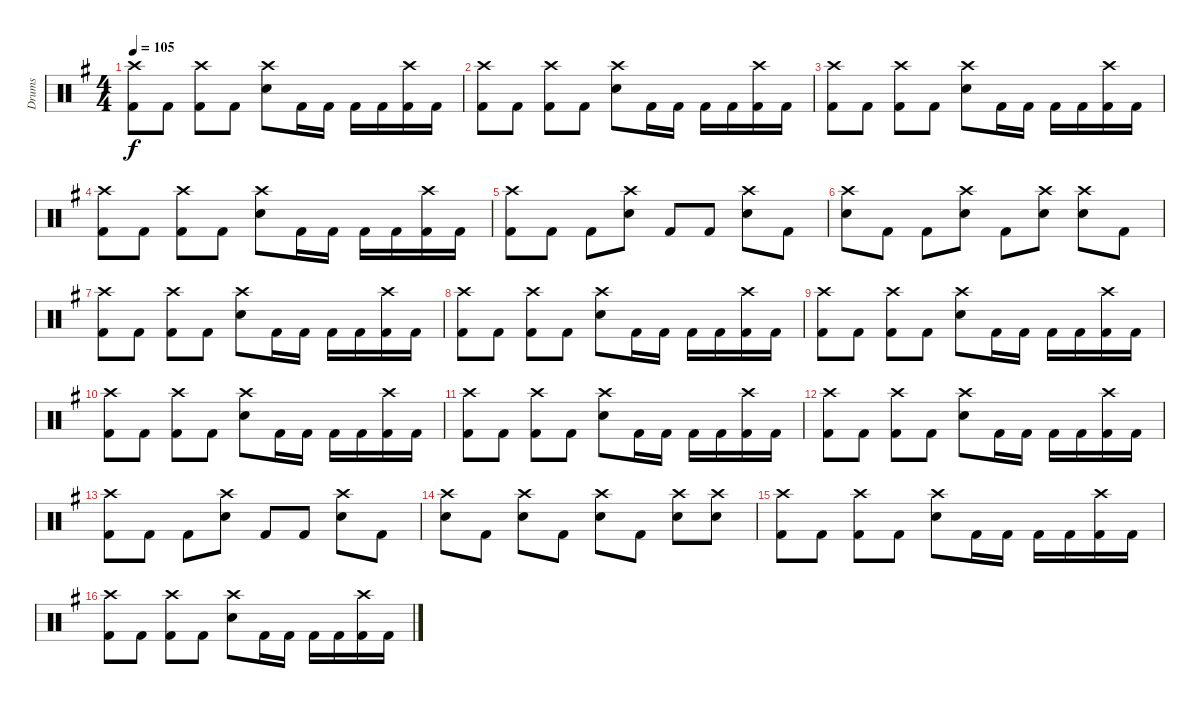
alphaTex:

\track ("Drums" "Drums") {instrument percussion}
\staff {score}
\articulation defaults
\ts (4 4)
\tempo 105
\clef neutral
\ks eminor
("Crash high (hit)" "Kick (hit) 2").8{dy f} "Kick (hit) 2".8 ("Crash high (hit)" "Kick (hit) 2").8 "Kick (hit) 2".8 ("Crash high (hit)" "Electric Snare (hit)").8 "Kick (hit) 2".16 "Kick (hit) 2".16 "Kick (hit) 2".16 "Kick (hit) 2".16 ("Crash high (hit)" "Kick (hit) 2").16 "Kick (hit) 2".16 |
("Crash high (hit)" "Kick (hit) 2").8 "Kick (hit) 2".8 ("Crash high (hit)" "Kick (hit) 2").8 "Kick (hit) 2".8 ("Crash high (hit)" "Electric Snare (hit)").8 "Kick (hit) 2".16 "Kick (hit) 2".16 "Kick (hit) 2".16 "Kick (hit) 2".16 ("Crash high (hit)" "Kick (hit) 2").16 "Kick (hit) 2".16 |
("Crash high (hit)" "Kick (hit) 2").8 "Kick (hit) 2".8 ("Crash high (hit)" "Kick (hit) 2").8 "Kick (hit) 2".8 ("Crash high (hit)" "Electric Snare (hit)").8 "Kick (hit) 2".16 "Kick (hit) 2".16 "Kick (hit) 2".16 "Kick (hit) 2".16 ("Crash high (hit)" "Kick (hit) 2").16 "Kick (hit) 2".16 |
("Crash high (hit)" "Kick (hit) 2").8 "Kick (hit) 2".8 ("Crash high (hit)" "Kick (hit) 2").8 "Kick (hit) 2".8 ("Crash high (hit)" "Electric Snare (hit)").8 "Kick (hit) 2".16 "Kick (hit) 2".16 "Kick (hit) 2".16 "Kick (hit) 2".16 ("Crash high (hit)" "Kick (hit) 2").16 "Kick (hit) 2".16 |
("Crash high (hit)" "Kick (hit) 2").8 "Kick (hit) 2".8 "Kick (hit) 2".8 ("Crash high (hit)" "Electric Snare (hit)").8 "Kick (hit) 2".8 "Kick (hit) 2".8 ("Crash high (hit)" "Electric Snare (hit)").8 "Kick (hit) 2".8 |
("Crash high (hit)" "Electric Snare (hit)").8 "Kick (hit) 2".8 "Kick (hit) 2".8 ("Crash high (hit)" "Electric Snare (hit)").8 "Kick (hit) 2".8 ("Crash high (hit)" "Electric Snare (hit)").8 ("Crash high (hit)" "Electric Snare (hit)").8 "Kick (hit) 2".8 |
("Crash high (hit)" "Kick (hit) 2").8{volume 9} "Kick (hit) 2".8 ("Crash high (hit)" "Kick (hit) 2").8 "Kick (hit) 2".8 ("Crash high (hit)" "Electric Snare (hit)").8 "Kick (hit) 2".16 "Kick (hit) 2".16 "Kick (hit) 2".16 "Kick (hit) 2".16 ("Crash high (hit)" "Kick (hit) 2").16 "Kick (hit) 2".16 |
("Crash high (hit)" "Kick (hit) 2").8 "Kick (hit) 2".8 ("Crash high (hit)" "Kick (hit) 2").8 "Kick (hit) 2".8 ("Crash high (hit)" "Electric Snare (hit)").8 "Kick (hit) 2".16 "Kick (hit) 2".16 "Kick (hit) 2".16 "Kick (hit) 2".16 ("Crash high (hit)" "Kick (hit) 2").16 "Kick (hit) 2".16 |
("Crash high (hit)" "Kick (hit) 2").8 "Kick (hit) 2".8 ("Crash high (hit)" "Kick (hit) 2").8 "Kick (hit) 2".8 ("Crash high (hit)" "Electric Snare (hit)").8 "Kick (hit) 2".16 "Kick (hit) 2".16 "Kick (hit) 2".16 "Kick (hit) 2".16 ("Crash high (hit)" "Kick (hit) 2").16 "Kick (hit) 2".16 |
("Crash high (hit)" "Kick (hit) 2").8 "Kick (hit) 2".8 ("Crash high (hit)" "Kick (hit) 2").8 "Kick (hit) 2".8 ("Crash high (hit)" "Electric Snare (hit)").8 "Kick (hit) 2".16 "Kick (hit) 2".16 "Kick (hit) 2".16 "Kick (hit) 2".16 ("Crash high (hit)" "Kick (hit) 2").16 "Kick (hit) 2".16 |
("Crash high (hit)" "Kick (hit) 2").8{volume 8} "Kick (hit) 2".8 ("Crash high (hit)" "Kick (hit) 2").8 "Kick (hit) 2".8 ("Crash high (hit)" "Electric Snare (hit)").8 "Kick (hit) 2".16 "Kick (hit) 2".16 "Kick (hit) 2".16 "Kick (hit) 2".16 ("Crash high (hit)" "Kick (hit) 2").16 "Kick (hit) 2".16 |
("Crash high (hit)" "Kick (hit) 2").8 "Kick (hit) 2".8 ("Crash high (hit)" "Kick (hit) 2").8 "Kick (hit) 2".8 ("Crash high (hit)" "Electric Snare (hit)").8 "Kick (hit) 2".16 "Kick (hit) 2".16 "Kick (hit) 2".16 "Kick (hit) 2".16 ("Crash high (hit)" "Kick (hit) 2").16 "Kick (hit) 2".16 |
("Crash high (hit)" "Kick (hit) 2").8 "Kick (hit) 2".8 "Kick (hit) 2".8 ("Crash high (hit)" "Electric Snare (hit)").8 "Kick (hit) 2".8 "Kick (hit) 2".8 ("Crash high (hit)" "Electric Snare (hit)").8 "Kick (hit) 2".8 |
("Crash high (hit)" "Electric Snare (hit)").8 "Kick (hit) 2".8 ("Crash high (hit)" "Electric Snare (hit)").8 "Kick (hit) 2".8 ("Crash high (hit)" "Electric Snare (hit)").8 "Kick (hit) 2".8 ("Crash high (hit)" "Electric Snare (hit)").8 ("Crash high (hit)" "Electric Snare (hit)").8 |
("Crash high (hit)" "Kick (hit) 2").8{volume 6} "Kick (hit) 2".8 ("Crash high (hit)" "Kick (hit) 2").8 "Kick (hit) 2".8 ("Crash high (hit)" "Electric Snare (hit)").8 "Kick (hit) 2".16 "Kick (hit) 2".16 "Kick (hit) 2".16 "Kick (hit) 2".16 ("Crash high (hit)" "Kick (hit) 2").16 "Kick (hit) 2".16 |
("Crash high (hit)" "Kick (hit) 2").8 "Kick (hit) 2".8 ("Crash high (hit)" "Kick (hit) 2").8 "Kick (hit) 2".8 ("Crash high (hit)" "Electric Snare (hit)").8 "Kick (hit) 2".16 "Kick (hit) 2".16 "Kick (hit) 2".16 "Kick (hit) 2".16 ("Crash high (hit)" "Kick (hit) 2").16 "Kick (hit) 2".16
